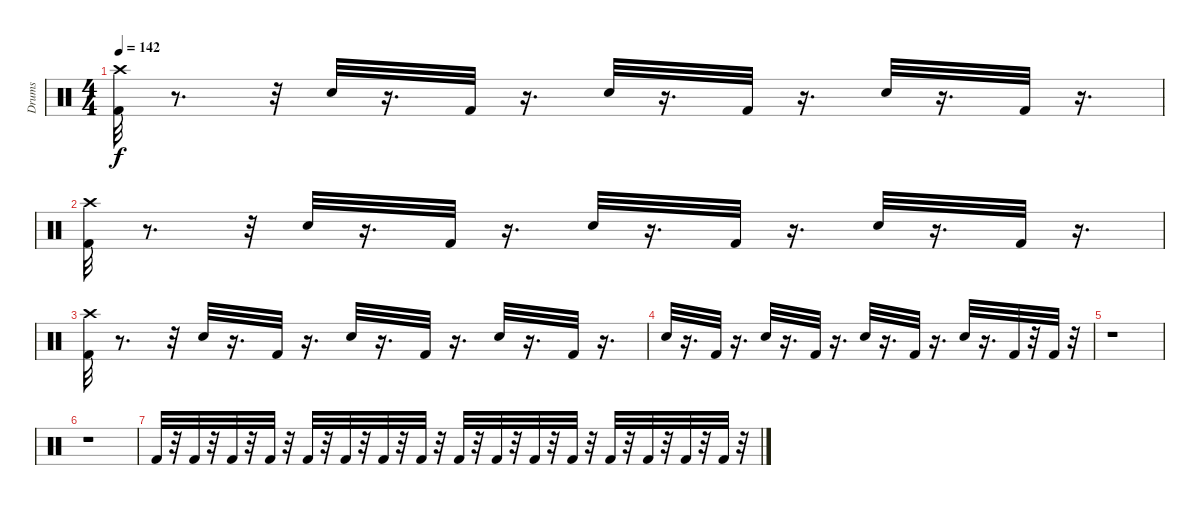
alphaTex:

\track ("Drums" "Drums") {instrument percussion}
\staff {score}
\articulation defaults
\ts (4 4)
\tempo 142
\clef neutral
\ks c
("Crash high (hit)" "Kick (hit) 2").32{dy f} r.8{d} r.32 "Snare (hit) 2".32 r.16{d} "Kick (hit) 2".32 r.16{d} "Snare (hit) 2".32 r.16{d} "Kick (hit) 2".32 r.16{d} "Snare (hit) 2".32 r.16{d} "Kick (hit) 2".32 r.16{d} |
("Crash high (hit)" "Kick (hit) 2").32 r.8{d} r.32 "Snare (hit) 2".32 r.16{d} "Kick (hit) 2".32 r.16{d} "Snare (hit) 2".32 r.16{d} "Kick (hit) 2".32 r.16{d} "Snare (hit) 2".32 r.16{d} "Kick (hit) 2".32 r.16{d} |
("Crash high (hit)" "Kick (hit) 2").32 r.8{d} r.32 "Snare (hit) 2".32 r.16{d} "Kick (hit) 2".32 r.16{d} "Snare (hit) 2".32 r.16{d} "Kick (hit) 2".32 r.16{d} "Snare (hit) 2".32 r.16{d} "Kick (hit) 2".32 r.16{d} |
"Snare (hit) 2".32 r.16{d} "Kick (hit) 2".32 r.16{d} "Snare (hit) 2".32 r.16{d} "Kick (hit) 2".32 r.16{d} "Snare (hit) 2".32 r.16{d} "Kick (hit) 2".32 r.16{d} "Snare (hit) 2".32 r.16{d} "Kick (hit) 2".32 r.32 "Kick (hit) 2".32 r.32 |
r.1 |
r.1 |
"Kick (hit) 2".32 r.32 "Kick (hit) 2".32 r.32 "Kick (hit) 2".32 r.32 "Kick (hit) 2".32 r.32 "Kick (hit) 2".32 r.32 "Kick (hit) 2".32 r.32 "Kick (hit) 2".32 r.32 "Kick (hit) 2".32 r.32 "Kick (hit) 2".32 r.32 "Kick (hit) 2".32 r.32 "Kick (hit) 2".32 r.32 "Kick (hit) 2".32 r.32 "Kick (hit) 2".32 r.32 "Kick (hit) 2".32 r.32 "Kick (hit) 2".32 r.32 "Kick (hit) 2".32 r.32
